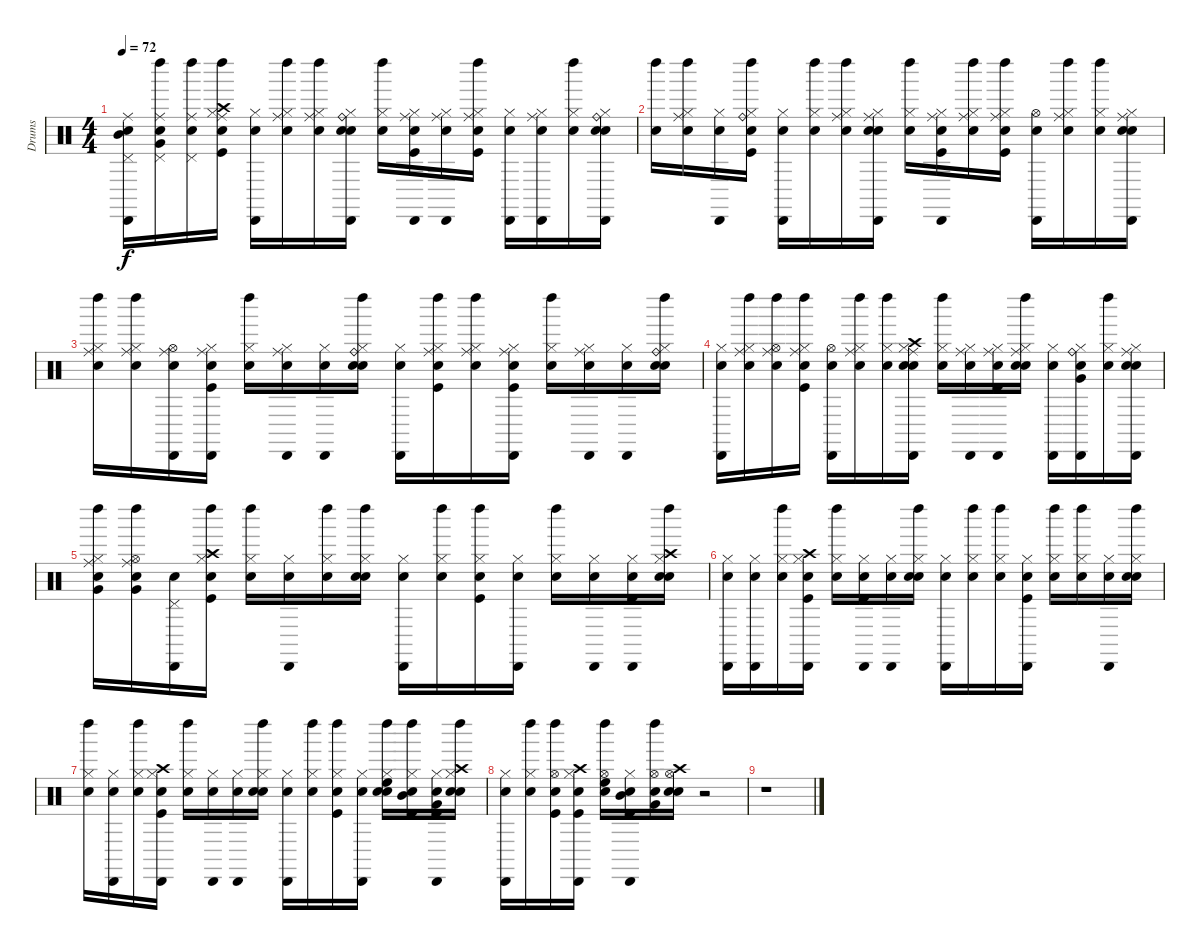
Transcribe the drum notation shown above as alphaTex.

\track ("Drums   " "Drums   ") {instrument percussion}
\staff {score}
\articulation defaults
\ts (4 4)
\tempo 72
\clef neutral
\ks c
("Snare (hit)" "Ride (middle)" "Cabasa (hit)" "Pedal Hi-Hat (hit)" "Mid Tom (hit)").16{dy f} ("Snare (hit)" "Very Low Tom (hit)" "Pedal Hi-Hat (hit)" "Ride (middle)" "Left Maraca (hit)").16 ("Snare (hit)" "Ride (middle)" "Left Maraca (hit)" "Pedal Hi-Hat (hit)").16 ("Snare (hit)" "Ride (middle)" "Kick (hit)" "Hi-Hat (closed)" "Crash high (hit)" "Left Maraca (hit)").16 ("Snare (hit)" "Cabasa (hit)" "Hi-Hat (closed)").16 ("Snare (hit)" "Ride (middle)" "Hi-Hat (closed)" "Left Maraca (hit)").16 ("Snare (hit)" "Hi-Hat (closed)" "Ride (middle)" "Left Maraca (hit)").16 ("Snare (hit)" "Ride (bell)" "Snare (hit) 2" "Hi-Hat (closed)" "Cabasa (hit)").16 ("Snare (hit)" "Hi-Hat (closed)" "Left Maraca (hit)").16 ("Snare (hit)" "Cabasa (hit)" "Hi-Hat (closed)" "Kick (hit)" "Ride (middle)").16 ("Snare (hit)" "Cabasa (hit)" "Ride (middle)" "Hi-Hat (closed)").16 ("Snare (hit)" "Kick (hit)" "Ride (middle)" "Left Maraca (hit)" "Hi-Hat (closed)").16 ("Snare (hit)" "Hi-Hat (closed)" "Cabasa (hit)").16 ("Snare (hit)" "Ride (middle)" "Hi-Hat (closed)" "Cabasa (hit)").16 ("Snare (hit)" "Hi-Hat (closed)" "Left Maraca (hit)").16 ("Snare (hit)" "Cabasa (hit)" "Hi-Hat (closed)" "Snare (hit) 2" "Ride (bell)").16 |
("Snare (hit)" "Left Maraca (hit)").16 ("Snare (hit)" "Hi-Hat (closed)" "Ride (middle)" "Left Maraca (hit)").16 ("Snare (hit)" "Hi-Hat (closed)" "Cabasa (hit)").16 ("Snare (hit)" "Ride (bell)" "Kick (hit)" "Hi-Hat (closed)" "Left Maraca (hit)").16 ("Snare (hit)" "Cabasa (hit)" "Hi-Hat (closed)").16 ("Snare (hit)" "Hi-Hat (closed)" "Left Maraca (hit)").16 ("Snare (hit)" "Ride (middle)" "Left Maraca (hit)" "Hi-Hat (closed)").16 ("Snare (hit)" "Cabasa (hit)" "Hi-Hat (closed)" "Snare (hit) 2" "Ride (middle)").16 ("Snare (hit)" "Hi-Hat (closed)" "Left Maraca (hit)").16 ("Snare (hit)" "Kick (hit)" "Hi-Hat (closed)" "Ride (middle)" "Cabasa (hit)").16 ("Snare (hit)" "Ride (middle)" "Hi-Hat (closed)" "Left Maraca (hit)").16 ("Snare (hit)" "Kick (hit)" "Hi-Hat (closed)" "Ride (middle)" "Left Maraca (hit)").16 ("Snare (hit)" "Cabasa (hit)" "Hi-Hat (open)").16 ("Snare (hit)" "Hi-Hat (closed)" "Ride (middle)" "Left Maraca (hit)").16 ("Snare (hit)" "Hi-Hat (closed)" "Left Maraca (hit)").16 ("Snare (hit)" "Ride (middle)" "Cabasa (hit)" "Snare (hit) 2" "Hi-Hat (closed)").16 |
("Snare (hit)" "Hi-Hat (closed)" "Ride (middle)" "Left Maraca (hit)").16 ("Snare (hit)" "Hi-Hat (closed)" "Ride (middle)" "Left Maraca (hit)").16 ("Snare (hit)" "Ride (middle)" "Hi-Hat (open)" "Cabasa (hit)").16 ("Snare (hit)" "Hi-Hat (closed)" "Cabasa (hit)" "Kick (hit)" "Ride (middle)").16 ("Snare (hit)" "Hi-Hat (closed)" "Left Maraca (hit)").16 ("Snare (hit)" "Ride (middle)" "Cabasa (hit)" "Hi-Hat (closed)").16 ("Snare (hit)" "Cabasa (hit)" "Hi-Hat (closed)").16 ("Snare (hit)" "Snare (hit) 2" "Hi-Hat (closed)" "Ride (bell)" "Left Maraca (hit)").16 ("Snare (hit)" "Cabasa (hit)" "Hi-Hat (closed)").16 ("Snare (hit)" "Hi-Hat (closed)" "Kick (hit)" "Ride (middle)" "Left Maraca (hit)").16 ("Snare (hit)" "Hi-Hat (closed)" "Left Maraca (hit)" "Ride (middle)").16 ("Snare (hit)" "Cabasa (hit)" "Kick (hit)" "Hi-Hat (closed)" "Ride (middle)").16 ("Snare (hit)" "Hi-Hat (closed)" "Left Maraca (hit)").16 ("Snare (hit)" "Cabasa (hit)" "Hi-Hat (closed)" "Ride (middle)").16 ("Snare (hit)" "Cabasa (hit)" "Hi-Hat (closed)").16 ("Snare (hit)" "Hi-Hat (closed)" "Snare (hit) 2" "Ride (bell)" "Left Maraca (hit)").16 |
("Snare (hit)" "Cabasa (hit)" "Hi-Hat (closed)").16 ("Snare (hit)" "Left Maraca (hit)" "Ride (middle)" "Hi-Hat (closed)").16 ("Snare (hit)" "Ride (middle)" "Left Maraca (hit)" "Hi-Hat (open)").16 ("Snare (hit)" "Kick (hit)" "Hi-Hat (closed)" "Ride (middle)" "Left Maraca (hit)").16 ("Snare (hit)" "Cabasa (hit)" "Hi-Hat (open)").16 ("Snare (hit)" "Hi-Hat (closed)" "Ride (middle)" "Left Maraca (hit)").16 ("Snare (hit)" "Hi-Hat (closed)" "Left Maraca (hit)").16 ("Snare (hit)" "Snare (hit) 2" "Hi-Hat (closed)" "Crash high (hit)" "Ride (middle)" "Cabasa (hit)").16 ("Snare (hit)" "Left Maraca (hit)" "Hi-Hat (closed)").16 ("Snare (hit)" "Cabasa (hit)" "Hi-Hat (closed)" "Ride (middle)").16 ("Snare (hit)" "Cabasa (hit)" "Kick (hit)" "Hi-Hat (closed)" "Ride (middle)").16 ("Snare (hit)" "Snare (hit) 2" "Hi-Hat (closed)" "Ride (middle)" "Left Maraca (hit)").16 ("Snare (hit)" "Cabasa (hit)" "Hi-Hat (closed)").16 ("Snare (hit)" "Hi-Hat (closed)" "Very Low Tom (hit)" "Ride (bell)" "Cabasa (hit)").16 ("Snare (hit)" "Hi-Hat (closed)" "Left Maraca (hit)").16 ("Snare (hit)" "Cabasa (hit)" "Hi-Hat (closed)" "Ride (middle)" "Snare (hit) 2").16 |
("Snare (hit)" "Very Low Tom (hit)" "Ride (middle)" "Left Maraca (hit)" "Hi-Hat (closed)").16 ("Snare (hit)" "Hi-Hat (open)" "Very Low Tom (hit)" "Left Maraca (hit)" "Ride (middle)").16 ("Snare (hit)" "Pedal Hi-Hat (hit)" "Cabasa (hit)").16 ("Snare (hit)" "Left Maraca (hit)" "Kick (hit)" "Crash high (hit)" "Hi-Hat (closed)").16 ("Snare (hit)" "Hi-Hat (closed)" "Left Maraca (hit)").16 ("Snare (hit)" "Hi-Hat (closed)" "Cabasa (hit)").16 ("Snare (hit)" "Hi-Hat (closed)" "Left Maraca (hit)").16 ("Snare (hit)" "Hi-Hat (closed)" "Snare (hit) 2" "Left Maraca (hit)").16 ("Snare (hit)" "Cabasa (hit)" "Hi-Hat (closed)").16 ("Snare (hit)" "Hi-Hat (closed)" "Left Maraca (hit)").16 ("Snare (hit)" "Hi-Hat (closed)" "Kick (hit)" "Left Maraca (hit)").16 ("Snare (hit)" "Cabasa (hit)" "Hi-Hat (closed)").16 ("Snare (hit)" "Hi-Hat (closed)" "Left Maraca (hit)").16 ("Snare (hit)" "Cabasa (hit)" "Hi-Hat (closed)").16 ("Snare (hit)" "Hi-Hat (closed)" "Kick (hit)" "Cabasa (hit)").16 ("Snare (hit)" "Left Maraca (hit)" "Snare (hit) 2" "Crash high (hit)" "Hi-Hat (closed)").16 |
("Snare (hit)" "Cabasa (hit)" "Hi-Hat (closed)").16 ("Snare (hit)" "Cabasa (hit)" "Hi-Hat (closed)").16 ("Snare (hit)" "Left Maraca (hit)" "Hi-Hat (closed)").16 ("Snare (hit)" "Cabasa (hit)" "Kick (hit)" "Crash high (hit)" "Hi-Hat (closed)").16 ("Snare (hit)" "Hi-Hat (closed)" "Left Maraca (hit)").16 ("Snare (hit)" "Kick (hit)" "Cabasa (hit)" "Hi-Hat (closed)").16 ("Snare (hit)" "Hi-Hat (closed)" "Cabasa (hit)").16 ("Snare (hit)" "Hi-Hat (closed)" "Snare (hit) 2" "Left Maraca (hit)").16 ("Snare (hit)" "Cabasa (hit)" "Hi-Hat (closed)").16 ("Snare (hit)" "Left Maraca (hit)" "Hi-Hat (closed)").16 ("Snare (hit)" "Hi-Hat (closed)" "Left Maraca (hit)").16 ("Snare (hit)" "Cabasa (hit)" "Hi-Hat (closed)" "Kick (hit)").16 ("Snare (hit)" "Hi-Hat (closed)" "Left Maraca (hit)").16 ("Snare (hit)" "Hi-Hat (closed)" "Left Maraca (hit)").16 ("Snare (hit)" "Cabasa (hit)" "Hi-Hat (closed)").16 ("Snare (hit)" "Snare (hit) 2" "Hi-Hat (closed)" "Left Maraca (hit)").16 |
("Snare (hit)" "Hi-Hat (closed)" "Left Maraca (hit)").16 ("Snare (hit)" "Cabasa (hit)" "Hi-Hat (closed)").16 ("Snare (hit)" "Hi-Hat (closed)" "Left Maraca (hit)").16 ("Snare (hit)" "Cabasa (hit)" "Kick (hit)" "Hi-Hat (closed)" "Crash high (hit)").16 ("Snare (hit)" "Hi-Hat (closed)" "Left Maraca (hit)").16 ("Snare (hit)" "Hi-Hat (closed)" "Cabasa (hit)").16 ("Snare (hit)" "Cabasa (hit)" "Hi-Hat (closed)").16 ("Snare (hit)" "Snare (hit) 2" "Hi-Hat (closed)" "Left Maraca (hit)").16 ("Snare (hit)" "Cabasa (hit)" "Hi-Hat (closed)").16 ("Snare (hit)" "Hi-Hat (closed)" "Left Maraca (hit)").16 ("Snare (hit)" "Hi-Hat (closed)" "Kick (hit)" "Left Maraca (hit)").16 ("Snare (hit)" "Cabasa (hit)" "Hi-Hat (closed)").16 ("Snare (hit)" "High Floor Tom (hit)" "Left Maraca (hit)" "Snare (hit) 2" "Hi-Hat (closed)").16 ("Snare (hit)" "Hi-Hat (closed)" "Kick (hit)" "Mid Tom (hit)" "Left Maraca (hit)").16 ("Snare (hit)" "Kick (hit)" "Hi-Hat (closed)" "Very Low Tom (hit)" "Cabasa (hit)").16 ("Snare (hit)" "Snare (hit) 2" "Hi-Hat (closed)" "Crash high (hit)" "Left Maraca (hit)").16 |
("Snare (hit)" "Cabasa (hit)" "Hi-Hat (closed)").16 ("Snare (hit)" "Hi-Hat (closed)" "Left Maraca (hit)").16 ("Snare (hit)" "Kick (hit)" "Hi-Hat (open)" "Left Maraca (hit)").16 ("Snare (hit)" "Kick (hit)" "Hi-Hat (closed)" "Crash high (hit)" "Cabasa (hit)").16 ("Snare (hit)" "High Floor Tom (hit)" "Hi-Hat (open)" "Left Maraca (hit)").16 ("Snare (hit)" "Hi-Hat (closed)" "Kick (hit)" "Mid Tom (hit)" "Cabasa (hit)").16 ("Snare (hit)" "Left Maraca (hit)" "Very Low Tom (hit)" "Hi-Hat (open)").16 ("Snare (hit)" "Snare (hit) 2" "Hi-Hat (open)" "Crash high (hit)").16 r.2 |
r.1
